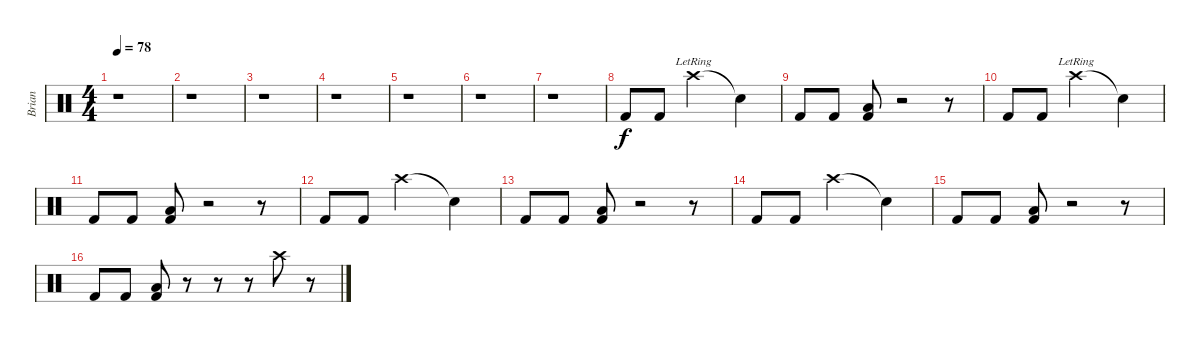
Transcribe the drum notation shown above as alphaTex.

\track ("Brian" "Brian") {instrument percussion}
\staff {score}
\articulation defaults
\ts (4 4)
\tempo 78
\clef neutral
\ks c
r.1{dy f} |
r.1 |
r.1 |
r.1 |
r.1 |
r.1 |
r.1 |
"Kick (hit) 2".8 "Kick (hit) 2".8 "Crash high (hit)"{lr}.2 "Snare (hit)"{t}.4 |
"Kick (hit) 2".8 "Kick (hit) 2".8 ("Low Tom (hit)" "Kick (hit) 2").8 r.2 r.8 |
"Kick (hit) 2".8 "Kick (hit) 2".8 "Crash high (hit)"{lr}.2 "Snare (hit)"{t}.4 |
"Kick (hit) 2".8 "Kick (hit) 2".8 ("Low Tom (hit)" "Kick (hit) 2").8 r.2 r.8 |
"Kick (hit) 2".8 "Kick (hit) 2".8 "Crash high (hit)".2 "Snare (hit)"{t}.4 |
"Kick (hit) 2".8 "Kick (hit) 2".8 ("Low Tom (hit)" "Kick (hit) 2").8 r.2 r.8 |
"Kick (hit) 2".8 "Kick (hit) 2".8 "Crash high (hit)".2 "Snare (hit)"{t}.4 |
"Kick (hit) 2".8 "Kick (hit) 2".8 ("Low Tom (hit)" "Kick (hit) 2").8 r.2 r.8 |
"Kick (hit) 2".8 "Kick (hit) 2".8 ("Low Tom (hit)" "Kick (hit) 2").8 r.8 r.8 r.8 "Crash high (hit)".8 r.8
